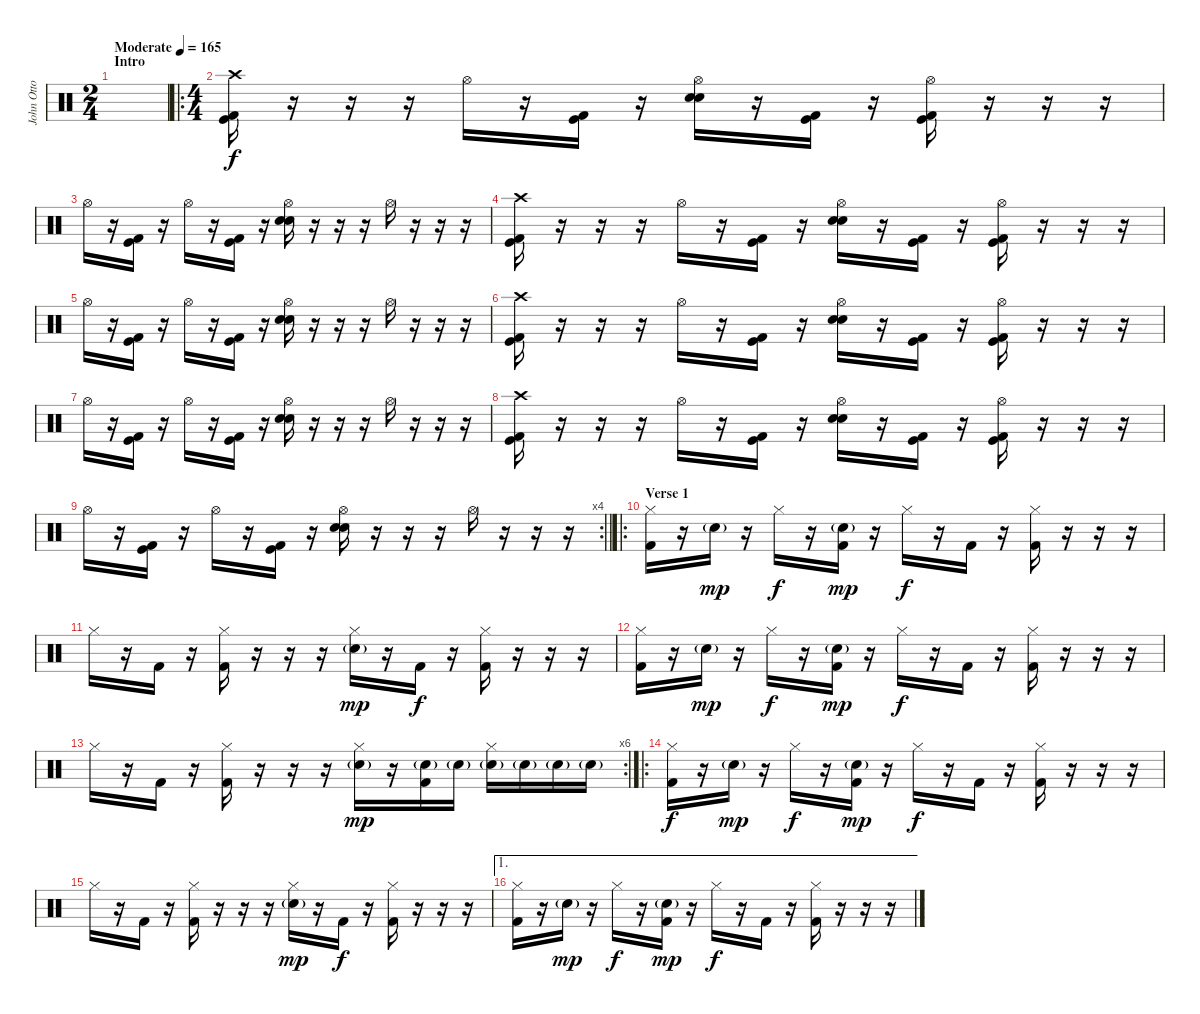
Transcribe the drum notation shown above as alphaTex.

\track ("John Otto" "John Otto") {instrument percussion}
\staff {score}
\articulation defaults
\ts (2 4)
\section ("" "Intro")
\tempo (165 "Moderate")
\clef neutral
\ks c
|
\ro
\ts (4 4)
("Crash high (hit)" "Kick (hit)" "Kick (hit) 2").16 r.16 r.16 r.16 "Hi-Hat (open)".16 r.16 ("Kick (hit)" "Kick (hit) 2").16 r.16 ("Hi-Hat (open)" "Electric Snare (hit)" "Snare (hit) 2").16 r.16 ("Kick (hit)" "Kick (hit) 2").16 r.16 ("Hi-Hat (open)" "Kick (hit)" "Kick (hit) 2").16 r.16 r.16 r.16 |
"Hi-Hat (open)".16 r.16 ("Kick (hit)" "Kick (hit) 2").16 r.16 "Hi-Hat (open)".16 r.16 ("Kick (hit)" "Kick (hit) 2").16 r.16 ("Hi-Hat (open)" "Electric Snare (hit)" "Snare (hit) 2").16 r.16 r.16 r.16 "Hi-Hat (open)".16 r.16 r.16 r.16 |
("Crash high (hit)" "Kick (hit)" "Kick (hit) 2").16 r.16 r.16 r.16 "Hi-Hat (open)".16 r.16 ("Kick (hit)" "Kick (hit) 2").16 r.16 ("Hi-Hat (open)" "Electric Snare (hit)" "Snare (hit) 2").16 r.16 ("Kick (hit)" "Kick (hit) 2").16 r.16 ("Hi-Hat (open)" "Kick (hit)" "Kick (hit) 2").16 r.16 r.16 r.16 |
"Hi-Hat (open)".16 r.16 ("Kick (hit)" "Kick (hit) 2").16 r.16 "Hi-Hat (open)".16 r.16 ("Kick (hit)" "Kick (hit) 2").16 r.16 ("Hi-Hat (open)" "Electric Snare (hit)" "Snare (hit) 2").16 r.16 r.16 r.16 "Hi-Hat (open)".16 r.16 r.16 r.16 |
("Crash high (hit)" "Kick (hit)" "Kick (hit) 2").16 r.16 r.16 r.16 "Hi-Hat (open)".16 r.16 ("Kick (hit)" "Kick (hit) 2").16 r.16 ("Hi-Hat (open)" "Electric Snare (hit)" "Snare (hit) 2").16 r.16 ("Kick (hit)" "Kick (hit) 2").16 r.16 ("Hi-Hat (open)" "Kick (hit)" "Kick (hit) 2").16 r.16 r.16 r.16 |
"Hi-Hat (open)".16 r.16 ("Kick (hit)" "Kick (hit) 2").16 r.16 "Hi-Hat (open)".16 r.16 ("Kick (hit)" "Kick (hit) 2").16 r.16 ("Hi-Hat (open)" "Electric Snare (hit)" "Snare (hit) 2").16 r.16 r.16 r.16 "Hi-Hat (open)".16 r.16 r.16 r.16 |
("Crash high (hit)" "Kick (hit)" "Kick (hit) 2").16 r.16 r.16 r.16 "Hi-Hat (open)".16 r.16 ("Kick (hit)" "Kick (hit) 2").16 r.16 ("Hi-Hat (open)" "Electric Snare (hit)" "Snare (hit) 2").16 r.16 ("Kick (hit)" "Kick (hit) 2").16 r.16 ("Hi-Hat (open)" "Kick (hit)" "Kick (hit) 2").16 r.16 r.16 r.16 |
\rc 4
\barLineRight lightlight "Hi-Hat (open)".16
r.16 ("Kick (hit)" "Kick (hit) 2").16 r.16 "Hi-Hat (open)".16 r.16 ("Kick (hit)" "Kick (hit) 2").16 r.16 ("Hi-Hat (open)" "Electric Snare (hit)" "Snare (hit) 2").16 r.16 r.16 r.16 "Hi-Hat (open)".16 r.16 r.16 r.16 |
\ro
\section ("" "Verse 1")
("Hi-Hat (closed)" "Kick (hit) 2").16 r.16 "Snare (hit) 2"{g}.16{dy mp} r.16 "Hi-Hat (closed)".16{dy f} r.16 ("Snare (hit) 2"{g} "Kick (hit) 2").16{dy mp} r.16 "Hi-Hat (closed)".16{dy f} r.16 "Kick (hit) 2".16 r.16 ("Hi-Hat (closed)" "Kick (hit) 2").16 r.16 r.16 r.16 |
"Hi-Hat (closed)".16 r.16 "Kick (hit) 2".16 r.16 ("Hi-Hat (closed)" "Kick (hit) 2").16 r.16 r.16 r.16 ("Hi-Hat (closed)" "Snare (hit) 2"{g}).16{dy mp} r.16 "Kick (hit) 2".16{dy f} r.16 ("Hi-Hat (closed)" "Kick (hit) 2").16 r.16 r.16 r.16 |
("Hi-Hat (closed)" "Kick (hit) 2").16 r.16 "Snare (hit) 2"{g}.16{dy mp} r.16 "Hi-Hat (closed)".16{dy f} r.16 ("Snare (hit) 2"{g} "Kick (hit) 2").16{dy mp} r.16 "Hi-Hat (closed)".16{dy f} r.16 "Kick (hit) 2".16 r.16 ("Hi-Hat (closed)" "Kick (hit) 2").16 r.16 r.16 r.16 |
\rc 6 "Hi-Hat (closed)".16
r.16 "Kick (hit) 2".16 r.16 ("Hi-Hat (closed)" "Kick (hit) 2").16 r.16 r.16 r.16 ("Hi-Hat (closed)" "Snare (hit) 2"{g}).16{dy mp} r.16 ("Snare (hit) 2"{g} "Kick (hit) 2").16 "Snare (hit) 2"{g}.16 ("Hi-Hat (closed)" "Snare (hit) 2"{g}).16 "Snare (hit) 2"{g}.16 "Snare (hit) 2"{g}.16 "Snare (hit) 2"{g}.16 |
\ro
("Hi-Hat (closed)" "Kick (hit) 2").16{dy f} r.16 "Snare (hit) 2"{g}.16{dy mp} r.16 "Hi-Hat (closed)".16{dy f} r.16 ("Snare (hit) 2"{g} "Kick (hit) 2").16{dy mp} r.16 "Hi-Hat (closed)".16{dy f} r.16 "Kick (hit) 2".16 r.16 ("Hi-Hat (closed)" "Kick (hit) 2").16 r.16 r.16 r.16 |
"Hi-Hat (closed)".16 r.16 "Kick (hit) 2".16 r.16 ("Hi-Hat (closed)" "Kick (hit) 2").16 r.16 r.16 r.16 ("Hi-Hat (closed)" "Snare (hit) 2"{g}).16{dy mp} r.16 "Kick (hit) 2".16{dy f} r.16 ("Hi-Hat (closed)" "Kick (hit) 2").16 r.16 r.16 r.16 |
\ae 1
("Hi-Hat (closed)" "Kick (hit) 2").16 r.16 "Snare (hit) 2"{g}.16{dy mp} r.16 "Hi-Hat (closed)".16{dy f} r.16 ("Snare (hit) 2"{g} "Kick (hit) 2").16{dy mp} r.16 "Hi-Hat (closed)".16{dy f} r.16 "Kick (hit) 2".16 r.16 ("Hi-Hat (closed)" "Kick (hit) 2").16 r.16 r.16 r.16
